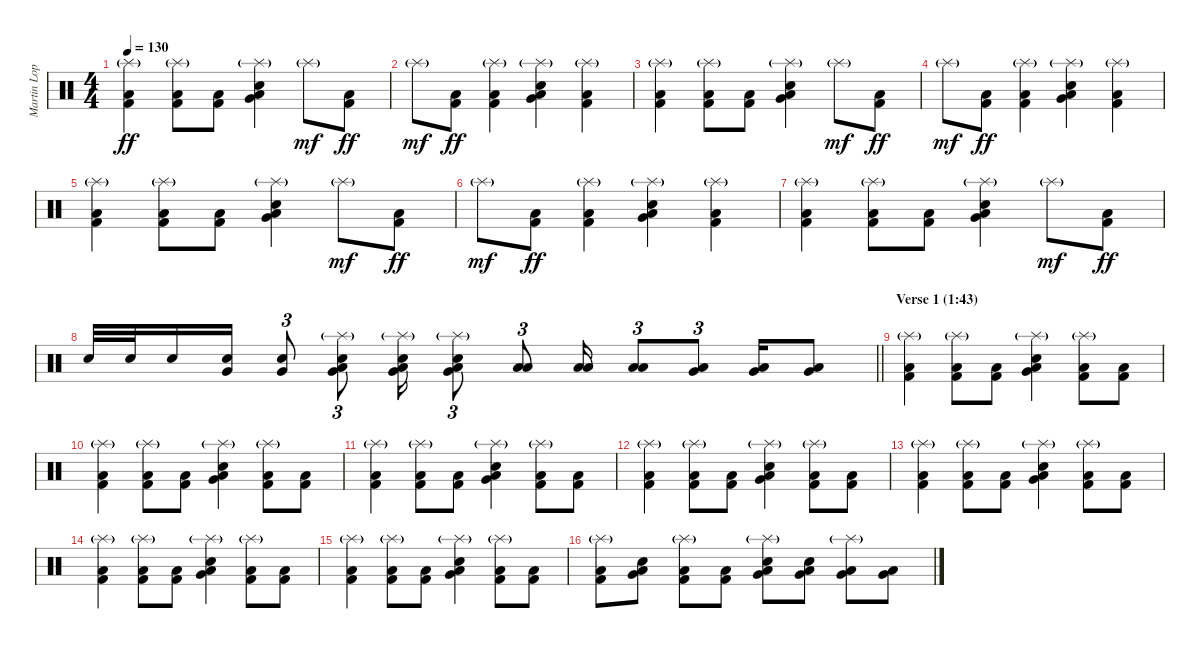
\track ("Martin Lopez" "Martin Lop") {instrument percussion}
\staff {score}
\articulation defaults
\ts (4 4)
\tempo 130
\clef neutral
\ks c
("Splash (hit)"{g} "Kick (hit) 2" "Low Floor Tom (hit)").4{dy ff} ("Splash (hit)"{g} "Kick (hit) 2" "Low Floor Tom (hit)").8 ("Kick (hit) 2" "Low Floor Tom (hit)").8 ("Splash (hit)"{g} "Very Low Tom (hit)" "Snare (hit) 2" "Low Floor Tom (hit)").4 "Splash (hit)"{g}.8{dy mf} ("Kick (hit) 2" "Low Floor Tom (hit)").8{dy ff} |
"Splash (hit)"{g}.8{dy mf} ("Kick (hit) 2" "Low Floor Tom (hit)").8{dy ff} ("Splash (hit)"{g} "Kick (hit) 2" "Low Floor Tom (hit)").4 ("Splash (hit)"{g} "Very Low Tom (hit)" "Snare (hit) 2" "Low Floor Tom (hit)").4 ("Splash (hit)"{g} "Kick (hit) 2" "Low Floor Tom (hit)").4 |
("Splash (hit)"{g} "Kick (hit) 2" "Low Floor Tom (hit)").4 ("Splash (hit)"{g} "Kick (hit) 2" "Low Floor Tom (hit)").8 ("Kick (hit) 2" "Low Floor Tom (hit)").8 ("Splash (hit)"{g} "Very Low Tom (hit)" "Snare (hit) 2" "Low Floor Tom (hit)").4 "Splash (hit)"{g}.8{dy mf} ("Kick (hit) 2" "Low Floor Tom (hit)").8{dy ff} |
"Splash (hit)"{g}.8{dy mf} ("Kick (hit) 2" "Low Floor Tom (hit)").8{dy ff} ("Splash (hit)"{g} "Kick (hit) 2" "Low Floor Tom (hit)").4 ("Splash (hit)"{g} "Very Low Tom (hit)" "Snare (hit) 2" "Low Floor Tom (hit)").4 ("Splash (hit)"{g} "Kick (hit) 2" "Low Floor Tom (hit)").4 |
("Splash (hit)"{g} "Kick (hit) 2" "Low Floor Tom (hit)").4 ("Splash (hit)"{g} "Kick (hit) 2" "Low Floor Tom (hit)").8 ("Kick (hit) 2" "Low Floor Tom (hit)").8 ("Splash (hit)"{g} "Very Low Tom (hit)" "Snare (hit) 2" "Low Floor Tom (hit)").4 "Splash (hit)"{g}.8{dy mf} ("Kick (hit) 2" "Low Floor Tom (hit)").8{dy ff} |
"Splash (hit)"{g}.8{dy mf} ("Kick (hit) 2" "Low Floor Tom (hit)").8{dy ff} ("Splash (hit)"{g} "Kick (hit) 2" "Low Floor Tom (hit)").4 ("Splash (hit)"{g} "Very Low Tom (hit)" "Snare (hit) 2" "Low Floor Tom (hit)").4 ("Splash (hit)"{g} "Kick (hit) 2" "Low Floor Tom (hit)").4 |
("Splash (hit)"{g} "Kick (hit) 2" "Low Floor Tom (hit)").4 ("Splash (hit)"{g} "Kick (hit) 2" "Low Floor Tom (hit)").8 ("Kick (hit) 2" "Low Floor Tom (hit)").8 ("Splash (hit)"{g} "Very Low Tom (hit)" "Snare (hit) 2" "Low Floor Tom (hit)").4 "Splash (hit)"{g}.8{dy mf} ("Kick (hit) 2" "Low Floor Tom (hit)").8{dy ff} |
\barLineRight lightlight "Snare (hit) 2".32 "Snare (hit) 2".32 "Snare (hit) 2".16
("Very Low Tom (hit)" "Snare (hit) 2").16 ("Very Low Tom (hit)" "Snare (hit) 2").8{tu (3 2)} ("Splash (hit)"{g} "Very Low Tom (hit)" "Snare (hit) 2" "Low Floor Tom (hit)").8{tu (3 2)} ("Splash (hit)"{g} "Very Low Tom (hit)" "Snare (hit) 2" "Low Floor Tom (hit)").16 ("Splash (hit)"{g} "Very Low Tom (hit)" "Snare (hit) 2" "Low Floor Tom (hit)").8{tu (3 2)} ("Low Tom (hit)" "Low Floor Tom (hit)").8{tu (3 2)} ("Low Tom (hit)" "Low Floor Tom (hit)").16 ("Low Tom (hit)" "Low Floor Tom (hit)").8{tu (3 2)} ("Very Low Tom (hit)" "Low Floor Tom (hit)").8{tu (3 2)} ("Very Low Tom (hit)" "Low Floor Tom (hit)").16 ("Very Low Tom (hit)" "Low Floor Tom (hit)").8 |
\section ("" "Verse 1 (1:43)")
("Splash (hit)"{g} "Kick (hit) 2" "Low Floor Tom (hit)").4 ("Splash (hit)"{g} "Kick (hit) 2" "Low Floor Tom (hit)").8 ("Kick (hit) 2" "Low Floor Tom (hit)").8 ("Splash (hit)"{g} "Very Low Tom (hit)" "Snare (hit) 2" "Low Floor Tom (hit)").4 ("Splash (hit)"{g} "Kick (hit) 2" "Low Floor Tom (hit)").8 ("Kick (hit) 2" "Low Floor Tom (hit)").8 |
("Splash (hit)"{g} "Kick (hit) 2" "Low Floor Tom (hit)").4 ("Splash (hit)"{g} "Kick (hit) 2" "Low Floor Tom (hit)").8 ("Kick (hit) 2" "Low Floor Tom (hit)").8 ("Splash (hit)"{g} "Very Low Tom (hit)" "Snare (hit) 2" "Low Floor Tom (hit)").4 ("Splash (hit)"{g} "Kick (hit) 2" "Low Floor Tom (hit)").8 ("Kick (hit) 2" "Low Floor Tom (hit)").8 |
("Splash (hit)"{g} "Kick (hit) 2" "Low Floor Tom (hit)").4 ("Splash (hit)"{g} "Kick (hit) 2" "Low Floor Tom (hit)").8 ("Kick (hit) 2" "Low Floor Tom (hit)").8 ("Splash (hit)"{g} "Very Low Tom (hit)" "Snare (hit) 2" "Low Floor Tom (hit)").4 ("Splash (hit)"{g} "Kick (hit) 2" "Low Floor Tom (hit)").8 ("Kick (hit) 2" "Low Floor Tom (hit)").8 |
("Splash (hit)"{g} "Kick (hit) 2" "Low Floor Tom (hit)").4 ("Splash (hit)"{g} "Kick (hit) 2" "Low Floor Tom (hit)").8 ("Kick (hit) 2" "Low Floor Tom (hit)").8 ("Splash (hit)"{g} "Very Low Tom (hit)" "Snare (hit) 2" "Low Floor Tom (hit)").4 ("Splash (hit)"{g} "Kick (hit) 2" "Low Floor Tom (hit)").8 ("Kick (hit) 2" "Low Floor Tom (hit)").8 |
("Splash (hit)"{g} "Kick (hit) 2" "Low Floor Tom (hit)").4 ("Splash (hit)"{g} "Kick (hit) 2" "Low Floor Tom (hit)").8 ("Kick (hit) 2" "Low Floor Tom (hit)").8 ("Splash (hit)"{g} "Very Low Tom (hit)" "Snare (hit) 2" "Low Floor Tom (hit)").4 ("Splash (hit)"{g} "Kick (hit) 2" "Low Floor Tom (hit)").8 ("Kick (hit) 2" "Low Floor Tom (hit)").8 |
("Splash (hit)"{g} "Kick (hit) 2" "Low Floor Tom (hit)").4 ("Splash (hit)"{g} "Kick (hit) 2" "Low Floor Tom (hit)").8 ("Kick (hit) 2" "Low Floor Tom (hit)").8 ("Splash (hit)"{g} "Very Low Tom (hit)" "Snare (hit) 2" "Low Floor Tom (hit)").4 ("Splash (hit)"{g} "Kick (hit) 2" "Low Floor Tom (hit)").8 ("Kick (hit) 2" "Low Floor Tom (hit)").8 |
("Splash (hit)"{g} "Kick (hit) 2" "Low Floor Tom (hit)").4 ("Splash (hit)"{g} "Kick (hit) 2" "Low Floor Tom (hit)").8 ("Kick (hit) 2" "Low Floor Tom (hit)").8 ("Splash (hit)"{g} "Very Low Tom (hit)" "Snare (hit) 2" "Low Floor Tom (hit)").4 ("Splash (hit)"{g} "Kick (hit) 2" "Low Floor Tom (hit)").8 ("Kick (hit) 2" "Low Floor Tom (hit)").8 |
("Splash (hit)"{g} "Kick (hit) 2" "Low Floor Tom (hit)").8 ("Very Low Tom (hit)" "Snare (hit) 2" "Low Floor Tom (hit)").8 ("Splash (hit)"{g} "Kick (hit) 2" "Low Floor Tom (hit)").8 ("Kick (hit) 2" "Low Floor Tom (hit)").8 ("Splash (hit)"{g} "Very Low Tom (hit)" "Snare (hit) 2" "Low Floor Tom (hit)").8 ("Very Low Tom (hit)" "Snare (hit) 2" "Low Floor Tom (hit)").8 ("Splash (hit)"{g} "Very Low Tom (hit)" "Low Floor Tom (hit)").8 ("Very Low Tom (hit)" "Low Floor Tom (hit)").8
